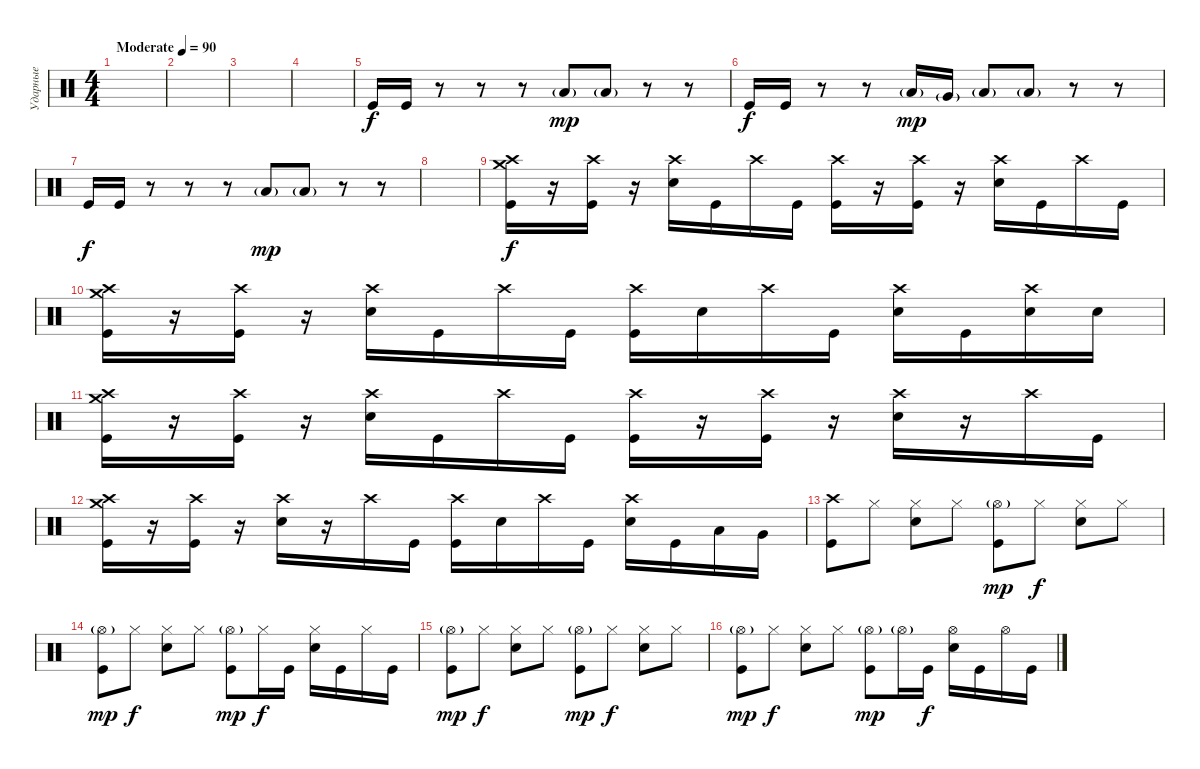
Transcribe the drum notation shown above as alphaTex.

\track ("Ударные" "Ударные") {instrument percussion}
\staff {score}
\articulation defaults
\ts (4 4)
\tempo (90 "Moderate")
\clef neutral
\ks c
|
|
|
|
"Kick (hit)".16 "Kick (hit)".16 r.8 r.8 r.8 "Low Floor Tom (hit)"{g}.8{dy mp} "Low Floor Tom (hit)"{g}.8 r.8 r.8 |
"Kick (hit)".16{dy f} "Kick (hit)".16 r.8 r.8 "Low Floor Tom (hit)"{g}.16{dy mp} "Very Low Tom (hit)"{g}.16 "Low Floor Tom (hit)"{g}.8 "Low Floor Tom (hit)"{g}.8 r.8 r.8 |
"Kick (hit)".16{dy f} "Kick (hit)".16 r.8 r.8 r.8 "Low Floor Tom (hit)"{g}.8{dy mp} "Low Floor Tom (hit)"{g}.8 r.8 r.8 |
|
("Crash high (hit)" "Kick (hit)" "Crash medium (hit)").16{dy f} r.16 ("Kick (hit)" "Crash high (hit)").16 r.16 ("Crash high (hit)" "Snare (hit) 2").16 "Kick (hit)".16 "Crash high (hit)".16 "Kick (hit)".16 ("Crash high (hit)" "Kick (hit)").16 r.16 ("Crash high (hit)" "Kick (hit)").16 r.16 ("Crash high (hit)" "Snare (hit) 2").16 "Kick (hit)".16 "Crash high (hit)".16 "Kick (hit)".16 |
("Crash high (hit)" "Kick (hit)" "Crash medium (hit)").16 r.16 ("Kick (hit)" "Crash high (hit)").16 r.16 ("Crash high (hit)" "Snare (hit) 2").16 "Kick (hit)".16 "Crash high (hit)".16 "Kick (hit)".16 ("Crash high (hit)" "Kick (hit)").16 "Snare (hit) 2".16 "Crash high (hit)".16 "Kick (hit)".16 ("Crash high (hit)" "Snare (hit) 2").16 "Kick (hit)".16 ("Crash high (hit)" "Snare (hit) 2").16 "Snare (hit) 2".16 |
("Crash high (hit)" "Kick (hit)" "Crash medium (hit)").16 r.16 ("Kick (hit)" "Crash high (hit)").16 r.16 ("Crash high (hit)" "Snare (hit) 2").16 "Kick (hit)".16 "Crash high (hit)".16 "Kick (hit)".16 ("Crash high (hit)" "Kick (hit)").16 r.16 ("Crash high (hit)" "Kick (hit)").16 r.16 ("Crash high (hit)" "Snare (hit) 2").16 r.16 "Crash high (hit)".16 "Kick (hit)".16 |
("Crash high (hit)" "Kick (hit)" "Crash medium (hit)").16 r.16 ("Kick (hit)" "Crash high (hit)").16 r.16 ("Crash high (hit)" "Snare (hit) 2").16 r.16 "Crash high (hit)".16 "Kick (hit)".16 ("Crash high (hit)" "Kick (hit)").16 "Snare (hit) 2".16 "Crash high (hit)".16 "Kick (hit)".16 ("Crash high (hit)" "Snare (hit) 2").16 "Kick (hit)".16 "Low Tom (hit)".16 "Very Low Tom (hit)".16 |
("Crash high (hit)" "Kick (hit)").8 "Hi-Hat (closed)".8 ("Hi-Hat (closed)" "Snare (hit) 2").8 "Hi-Hat (closed)".8 ("Hi-Hat (open)"{g} "Kick (hit)").8{dy mp} "Hi-Hat (closed)".8{dy f} ("Hi-Hat (closed)" "Snare (hit) 2").8 "Hi-Hat (closed)".8 |
("Kick (hit)" "Hi-Hat (open)"{g}).8{dy mp} "Hi-Hat (closed)".8{dy f} ("Hi-Hat (closed)" "Snare (hit) 2").8 "Hi-Hat (closed)".8 ("Hi-Hat (open)"{g} "Kick (hit)").8{dy mp} "Hi-Hat (closed)".16{dy f} "Kick (hit)".16 ("Hi-Hat (closed)" "Snare (hit) 2").16 "Kick (hit)".16 "Hi-Hat (closed)".16 "Kick (hit)".16 |
("Hi-Hat (open)"{g} "Kick (hit)").8{dy mp} "Hi-Hat (closed)".8{dy f} ("Hi-Hat (closed)" "Snare (hit) 2").8 "Hi-Hat (closed)".8 ("Hi-Hat (open)"{g} "Kick (hit)").8{dy mp} "Hi-Hat (closed)".8{dy f} ("Hi-Hat (closed)" "Snare (hit) 2").8 "Hi-Hat (closed)".8 |
("Kick (hit)" "Hi-Hat (open)"{g}).8{dy mp} "Hi-Hat (closed)".8{dy f} ("Hi-Hat (closed)" "Snare (hit) 2").8 "Hi-Hat (closed)".8 ("Hi-Hat (open)"{g} "Kick (hit)").8{dy mp} "Hi-Hat (open)"{g}.16 "Kick (hit)".16{dy f} ("Hi-Hat (open)" "Snare (hit) 2").16 "Kick (hit)".16 "Hi-Hat (open)".16 "Kick (hit)".16
